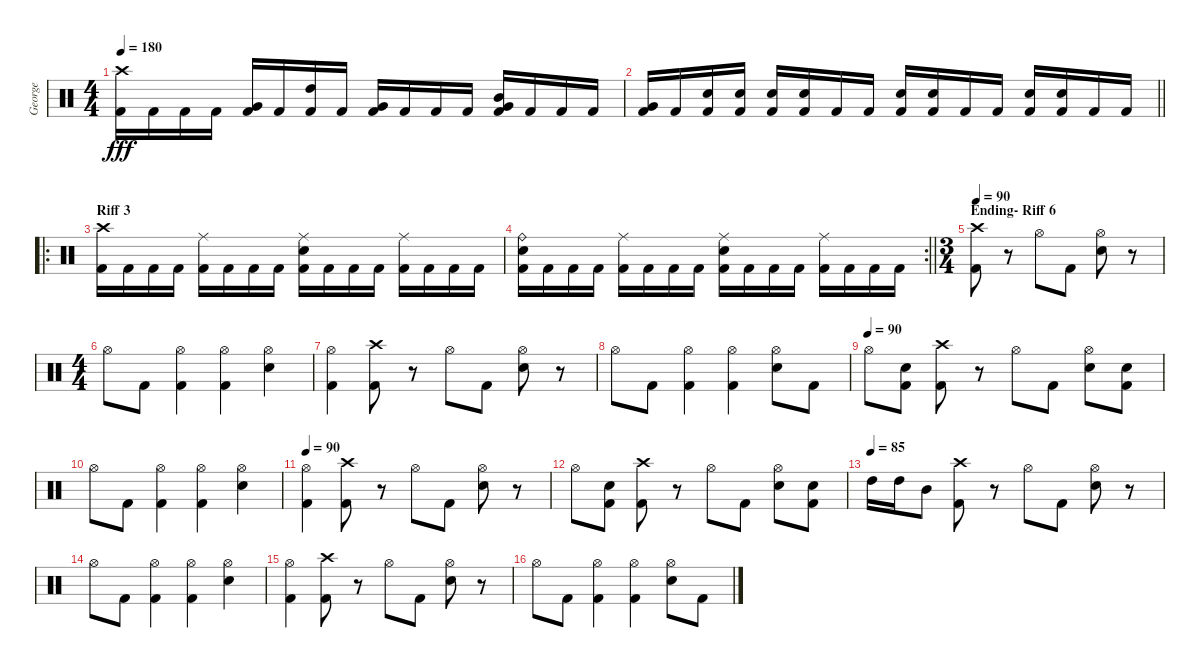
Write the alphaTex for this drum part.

\track ("George" "George") {instrument percussion}
\staff {score}
\articulation defaults
\ts (4 4)
\tempo 190
\tempo 170
\tempo 180
\clef neutral
\ks c
("Crash high (hit)" "Kick (hit) 2").16{dy fff} "Kick (hit) 2".16 "Kick (hit) 2".16 "Kick (hit) 2".16 ("Very Low Tom (hit)" "Kick (hit) 2").16 "Kick (hit) 2".16 ("High Tom (hit)" "Kick (hit) 2").16 "Kick (hit) 2".16 ("Very Low Tom (hit)" "Kick (hit) 2").16 "Kick (hit) 2".16 "Kick (hit) 2".16 "Kick (hit) 2".16 ("Mid Tom (hit)" "Very Low Tom (hit)" "Kick (hit) 2").16 "Kick (hit) 2".16 "Kick (hit) 2".16 "Kick (hit) 2".16 |
\barLineRight lightlight
("Very Low Tom (hit)" "Kick (hit) 2").16 "Kick (hit) 2".16 ("Snare (hit) 2" "Kick (hit) 2").16 ("Snare (hit) 2" "Kick (hit) 2").16 ("Snare (hit) 2" "Kick (hit) 2").16 ("Snare (hit) 2" "Kick (hit) 2").16 "Kick (hit) 2".16 "Kick (hit) 2".16 ("Snare (hit) 2" "Kick (hit) 2").16 ("Snare (hit) 2" "Kick (hit) 2").16 "Kick (hit) 2".16 "Kick (hit) 2".16 ("Snare (hit) 2" "Kick (hit) 2").16 ("Snare (hit) 2" "Kick (hit) 2").16 "Kick (hit) 2".16 "Kick (hit) 2".16 |
\ro
\section ("" "Riff 3")
("Crash high (hit)" "Kick (hit) 2").16 "Kick (hit) 2".16 "Kick (hit) 2".16 "Kick (hit) 2".16 ("Ride (middle)" "Kick (hit) 2").16 "Kick (hit) 2".16 "Kick (hit) 2".16 "Kick (hit) 2".16 ("Ride (middle)" "Snare (hit) 2" "Kick (hit) 2").16 "Kick (hit) 2".16 "Kick (hit) 2".16 "Kick (hit) 2".16 ("Ride (middle)" "Kick (hit) 2").16 "Kick (hit) 2".16 "Kick (hit) 2".16 "Kick (hit) 2".16 |
\rc 2
\barLineRight lightlight
("Ride (bell)" "Snare (hit) 2" "Kick (hit) 2").16 "Kick (hit) 2".16 "Kick (hit) 2".16 "Kick (hit) 2".16 ("Ride (middle)" "Kick (hit) 2").16 "Kick (hit) 2".16 "Kick (hit) 2".16 "Kick (hit) 2".16 ("Ride (middle)" "Snare (hit) 2" "Kick (hit) 2").16 "Kick (hit) 2".16 "Kick (hit) 2".16 "Kick (hit) 2".16 ("Ride (middle)" "Kick (hit) 2").16 "Kick (hit) 2".16 "Kick (hit) 2".16 "Kick (hit) 2".16 |
\ts (3 4)
\section ("" "Ending- Riff 6")
\tempo 90
("Crash high (hit)" "Kick (hit) 2").8 r.8 "Hi-Hat (open)".8 "Kick (hit) 2".8 ("Hi-Hat (open)" "Snare (hit) 2").8 r.8 |
\ts (4 4)
"Hi-Hat (open)".8 "Kick (hit) 2".8 ("Hi-Hat (open)" "Kick (hit) 2").4 ("Hi-Hat (open)" "Kick (hit) 2").4 ("Snare (hit) 2" "Hi-Hat (open)").4 |
("Hi-Hat (open)" "Kick (hit) 2").4 ("Crash high (hit)" "Kick (hit) 2").8 r.8 "Hi-Hat (open)".8 "Kick (hit) 2".8 ("Hi-Hat (open)" "Snare (hit) 2").8 r.8 |
"Hi-Hat (open)".8 "Kick (hit) 2".8 ("Hi-Hat (open)" "Kick (hit) 2").4 ("Hi-Hat (open)" "Kick (hit) 2").4 ("Snare (hit) 2" "Hi-Hat (open)").8 "Kick (hit) 2".8 |
\tempo (90)
"Hi-Hat (open)".8 ("Snare (hit)" "Kick (hit) 2").8 ("Crash high (hit)" "Kick (hit) 2").8 r.8 "Hi-Hat (open)".8 "Kick (hit) 2".8 ("Hi-Hat (open)" "Snare (hit) 2").8 ("Snare (hit)" "Kick (hit) 2").8 |
"Hi-Hat (open)".8 "Kick (hit) 2".8 ("Hi-Hat (open)" "Kick (hit) 2").4 ("Hi-Hat (open)" "Kick (hit) 2").4 ("Snare (hit) 2" "Hi-Hat (open)").4 |
\tempo 90
("Hi-Hat (open)" "Kick (hit) 2").4 ("Crash high (hit)" "Kick (hit) 2").8 r.8 "Hi-Hat (open)".8 "Kick (hit) 2".8 ("Hi-Hat (open)" "Snare (hit) 2").8 r.8 |
"Hi-Hat (open)".8 ("Snare (hit)" "Kick (hit) 2").8 ("Crash high (hit)" "Kick (hit) 2").8 r.8 "Hi-Hat (open)".8 "Kick (hit) 2".8 ("Hi-Hat (open)" "Snare (hit) 2").8 ("Snare (hit)" "Kick (hit) 2").8 |
\tempo (85)
"High Tom (hit)".16 "High Tom (hit)".16 "Mid Tom (hit)".8 ("Crash high (hit)" "Kick (hit) 2").8 r.8 "Hi-Hat (open)".8 "Kick (hit) 2".8 ("Hi-Hat (open)" "Snare (hit) 2").8 r.8 |
"Hi-Hat (open)".8 "Kick (hit) 2".8 ("Hi-Hat (open)" "Kick (hit) 2").4 ("Hi-Hat (open)" "Kick (hit) 2").4 ("Snare (hit) 2" "Hi-Hat (open)").4 |
("Hi-Hat (open)" "Kick (hit) 2").4 ("Crash high (hit)" "Kick (hit) 2").8 r.8 "Hi-Hat (open)".8 "Kick (hit) 2".8 ("Hi-Hat (open)" "Snare (hit) 2").8 r.8 |
"Hi-Hat (open)".8 "Kick (hit) 2".8 ("Hi-Hat (open)" "Kick (hit) 2").4 ("Hi-Hat (open)" "Kick (hit) 2").4 ("Snare (hit) 2" "Hi-Hat (open)").8 "Kick (hit) 2".8
